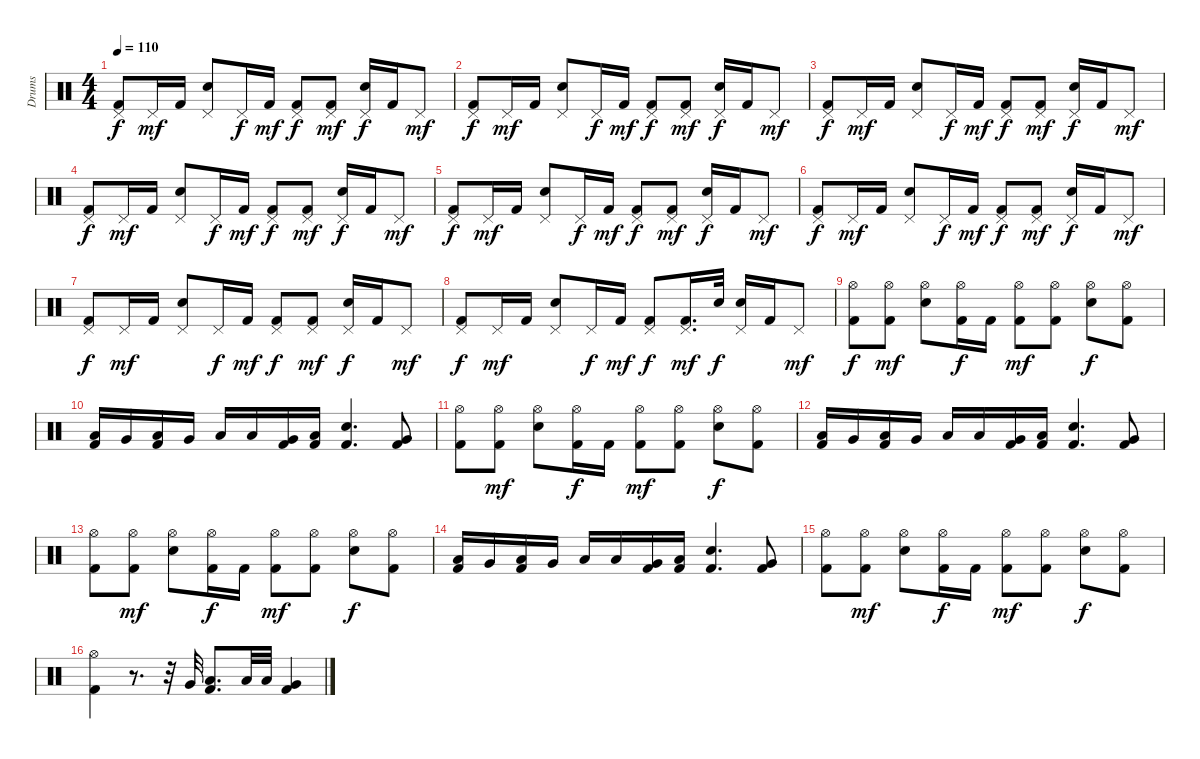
\track ("Drums" "Drums") {instrument percussion}
\staff {score}
\articulation defaults
\ts (4 4)
\tempo 110
\clef neutral
\ks c
("Pedal Hi-Hat (hit)" "Kick (hit) 2").8{dy f} "Pedal Hi-Hat (hit)".16{dy mf} "Kick (hit) 2".16 ("Pedal Hi-Hat (hit)" "Electric Snare (hit)").8 "Pedal Hi-Hat (hit)".16{dy f} "Kick (hit) 2".16{dy mf} ("Pedal Hi-Hat (hit)" "Kick (hit) 2").8{dy f} ("Pedal Hi-Hat (hit)" "Kick (hit) 2").8{dy mf} ("Pedal Hi-Hat (hit)" "Electric Snare (hit)").16{dy f} "Kick (hit) 2".16 "Pedal Hi-Hat (hit)".8{dy mf} |
("Pedal Hi-Hat (hit)" "Kick (hit) 2").8{dy f} "Pedal Hi-Hat (hit)".16{dy mf} "Kick (hit) 2".16 ("Pedal Hi-Hat (hit)" "Electric Snare (hit)").8 "Pedal Hi-Hat (hit)".16{dy f} "Kick (hit) 2".16{dy mf} ("Pedal Hi-Hat (hit)" "Kick (hit) 2").8{dy f} ("Pedal Hi-Hat (hit)" "Kick (hit) 2").8{dy mf} ("Pedal Hi-Hat (hit)" "Electric Snare (hit)").16{dy f} "Kick (hit) 2".16 "Pedal Hi-Hat (hit)".8{dy mf} |
("Pedal Hi-Hat (hit)" "Kick (hit) 2").8{dy f} "Pedal Hi-Hat (hit)".16{dy mf} "Kick (hit) 2".16 ("Pedal Hi-Hat (hit)" "Electric Snare (hit)").8 "Pedal Hi-Hat (hit)".16{dy f} "Kick (hit) 2".16{dy mf} ("Pedal Hi-Hat (hit)" "Kick (hit) 2").8{dy f} ("Pedal Hi-Hat (hit)" "Kick (hit) 2").8{dy mf} ("Pedal Hi-Hat (hit)" "Electric Snare (hit)").16{dy f} "Kick (hit) 2".16 "Pedal Hi-Hat (hit)".8{dy mf} |
("Pedal Hi-Hat (hit)" "Kick (hit) 2").8{dy f} "Pedal Hi-Hat (hit)".16{dy mf} "Kick (hit) 2".16 ("Pedal Hi-Hat (hit)" "Electric Snare (hit)").8 "Pedal Hi-Hat (hit)".16{dy f} "Kick (hit) 2".16{dy mf} ("Pedal Hi-Hat (hit)" "Kick (hit) 2").8{dy f} ("Pedal Hi-Hat (hit)" "Kick (hit) 2").8{dy mf} ("Pedal Hi-Hat (hit)" "Electric Snare (hit)").16{dy f} "Kick (hit) 2".16 "Pedal Hi-Hat (hit)".8{dy mf} |
("Pedal Hi-Hat (hit)" "Kick (hit) 2").8{dy f} "Pedal Hi-Hat (hit)".16{dy mf} "Kick (hit) 2".16 ("Pedal Hi-Hat (hit)" "Electric Snare (hit)").8 "Pedal Hi-Hat (hit)".16{dy f} "Kick (hit) 2".16{dy mf} ("Pedal Hi-Hat (hit)" "Kick (hit) 2").8{dy f} ("Pedal Hi-Hat (hit)" "Kick (hit) 2").8{dy mf} ("Pedal Hi-Hat (hit)" "Electric Snare (hit)").16{dy f} "Kick (hit) 2".16 "Pedal Hi-Hat (hit)".8{dy mf} |
("Pedal Hi-Hat (hit)" "Kick (hit) 2").8{dy f} "Pedal Hi-Hat (hit)".16{dy mf} "Kick (hit) 2".16 ("Pedal Hi-Hat (hit)" "Electric Snare (hit)").8 "Pedal Hi-Hat (hit)".16{dy f} "Kick (hit) 2".16{dy mf} ("Pedal Hi-Hat (hit)" "Kick (hit) 2").8{dy f} ("Pedal Hi-Hat (hit)" "Kick (hit) 2").8{dy mf} ("Pedal Hi-Hat (hit)" "Electric Snare (hit)").16{dy f} "Kick (hit) 2".16 "Pedal Hi-Hat (hit)".8{dy mf} |
("Pedal Hi-Hat (hit)" "Kick (hit) 2").8{dy f} "Pedal Hi-Hat (hit)".16{dy mf} "Kick (hit) 2".16 ("Pedal Hi-Hat (hit)" "Electric Snare (hit)").8 "Pedal Hi-Hat (hit)".16{dy f} "Kick (hit) 2".16{dy mf} ("Pedal Hi-Hat (hit)" "Kick (hit) 2").8{dy f} ("Pedal Hi-Hat (hit)" "Kick (hit) 2").8{dy mf} ("Pedal Hi-Hat (hit)" "Electric Snare (hit)").16{dy f} "Kick (hit) 2".16 "Pedal Hi-Hat (hit)".8{dy mf} |
("Pedal Hi-Hat (hit)" "Kick (hit) 2").8{dy f} "Pedal Hi-Hat (hit)".16{dy mf} "Kick (hit) 2".16 ("Pedal Hi-Hat (hit)" "Electric Snare (hit)").8 "Pedal Hi-Hat (hit)".16{dy f} "Kick (hit) 2".16{dy mf} ("Pedal Hi-Hat (hit)" "Kick (hit) 2").8{dy f} ("Pedal Hi-Hat (hit)" "Kick (hit) 2").16{d dy mf} "Electric Snare (hit)".32{dy f} ("Pedal Hi-Hat (hit)" "Electric Snare (hit)").16 "Kick (hit) 2".16 "Pedal Hi-Hat (hit)".8{dy mf} |
("Hi-Hat (open)" "Kick (hit) 2").8{dy f} ("Hi-Hat (open)" "Kick (hit) 2").8{dy mf} ("Hi-Hat (open)" "Electric Snare (hit)").8 ("Hi-Hat (open)" "Kick (hit) 2").16{dy f} "Kick (hit) 2".16 ("Hi-Hat (open)" "Kick (hit) 2").8{dy mf} ("Hi-Hat (open)" "Kick (hit) 2").8 ("Hi-Hat (open)" "Electric Snare (hit)").8{dy f} ("Hi-Hat (open)" "Kick (hit) 2").8 |
("Low Tom (hit)" "Kick (hit) 2").16 "Very Low Tom (hit)".16 ("Low Tom (hit)" "Kick (hit) 2").16 "Very Low Tom (hit)".16 "Low Floor Tom (hit)".16 "Low Floor Tom (hit)".16 ("Very Low Tom (hit)" "Kick (hit) 2").16 ("Low Tom (hit)" "Kick (hit) 2").16 ("Electric Snare (hit)" "Kick (hit) 2").4{d} ("Very Low Tom (hit)" "Kick (hit) 2").8 |
("Hi-Hat (open)" "Kick (hit) 2").8 ("Hi-Hat (open)" "Kick (hit) 2").8{dy mf} ("Hi-Hat (open)" "Electric Snare (hit)").8 ("Hi-Hat (open)" "Kick (hit) 2").16{dy f} "Kick (hit) 2".16 ("Hi-Hat (open)" "Kick (hit) 2").8{dy mf} ("Hi-Hat (open)" "Kick (hit) 2").8 ("Hi-Hat (open)" "Electric Snare (hit)").8{dy f} ("Hi-Hat (open)" "Kick (hit) 2").8 |
("Low Tom (hit)" "Kick (hit) 2").16 "Very Low Tom (hit)".16 ("Low Tom (hit)" "Kick (hit) 2").16 "Very Low Tom (hit)".16 "Low Floor Tom (hit)".16 "Low Floor Tom (hit)".16 ("Very Low Tom (hit)" "Kick (hit) 2").16 ("Low Tom (hit)" "Kick (hit) 2").16 ("Electric Snare (hit)" "Kick (hit) 2").4{d} ("Very Low Tom (hit)" "Kick (hit) 2").8 |
("Hi-Hat (open)" "Kick (hit) 2").8 ("Hi-Hat (open)" "Kick (hit) 2").8{dy mf} ("Hi-Hat (open)" "Electric Snare (hit)").8 ("Hi-Hat (open)" "Kick (hit) 2").16{dy f} "Kick (hit) 2".16 ("Hi-Hat (open)" "Kick (hit) 2").8{dy mf} ("Hi-Hat (open)" "Kick (hit) 2").8 ("Hi-Hat (open)" "Electric Snare (hit)").8{dy f} ("Hi-Hat (open)" "Kick (hit) 2").8 |
("Low Tom (hit)" "Kick (hit) 2").16 "Very Low Tom (hit)".16 ("Low Tom (hit)" "Kick (hit) 2").16 "Very Low Tom (hit)".16 "Low Floor Tom (hit)".16 "Low Floor Tom (hit)".16 ("Very Low Tom (hit)" "Kick (hit) 2").16 ("Low Tom (hit)" "Kick (hit) 2").16 ("Electric Snare (hit)" "Kick (hit) 2").4{d} ("Very Low Tom (hit)" "Kick (hit) 2").8 |
("Hi-Hat (open)" "Kick (hit) 2").8 ("Hi-Hat (open)" "Kick (hit) 2").8{dy mf} ("Hi-Hat (open)" "Electric Snare (hit)").8 ("Hi-Hat (open)" "Kick (hit) 2").16{dy f} "Kick (hit) 2".16 ("Hi-Hat (open)" "Kick (hit) 2").8{dy mf} ("Hi-Hat (open)" "Kick (hit) 2").8 ("Hi-Hat (open)" "Electric Snare (hit)").8{dy f} ("Hi-Hat (open)" "Kick (hit) 2").8 |
("Hi-Hat (open)" "Kick (hit) 2").4 r.8{d} r.32 "Very Low Tom (hit)".32 ("Low Tom (hit)" "Kick (hit) 2").8{d} "Low Tom (hit)".32 "Low Tom (hit)".32 ("Very Low Tom (hit)" "Kick (hit) 2").4
